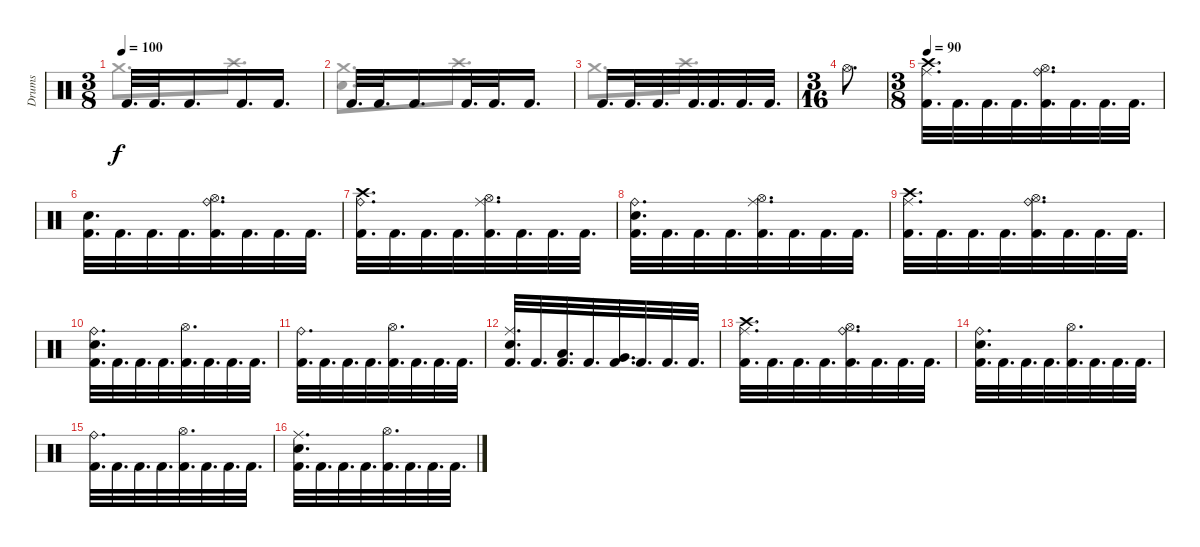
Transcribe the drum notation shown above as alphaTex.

\track ("Drums" "Drums") {instrument percussion}
\staff {score}
\articulation defaults
\voice
\ts (3 8)
\tempo 100
\clef neutral
\ks c "Kick (hit) 2".32{d dy f} "Kick (hit) 2".32{d} "Kick (hit) 2".16{d} "Kick (hit) 2".16{d} "Kick (hit) 2".16{d}
|
"Kick (hit) 2".32{d} "Kick (hit) 2".32{d} "Kick (hit) 2".16{d} "Kick (hit) 2".32{d} "Kick (hit) 2".32{d} "Kick (hit) 2".16{d} |
"Kick (hit) 2".16{d} "Kick (hit) 2".32{d} "Kick (hit) 2".32{d} "Kick (hit) 2".32{d} "Kick (hit) 2".32{d} "Kick (hit) 2".32{d} "Kick (hit) 2".32{d} |
\ts (3 16)
"Hi-Hat (open)".8{d} |
\ts (3 8)
\tempo 90
("Crash high (hit)" "Ride (middle)" "Kick (hit) 2").32{d} "Kick (hit) 2".32{d} "Kick (hit) 2".32{d} "Kick (hit) 2".32{d} ("Ride (bell)" "Hi-Hat (open)" "Kick (hit) 2").32{d} "Kick (hit) 2".32{d} "Kick (hit) 2".32{d} "Kick (hit) 2".32{d} |
("Electric Snare (hit)" "Kick (hit) 2").32{d} "Kick (hit) 2".32{d} "Kick (hit) 2".32{d} "Kick (hit) 2".32{d} ("Ride (bell)" "Hi-Hat (open)" "Kick (hit) 2").32{d} "Kick (hit) 2".32{d} "Kick (hit) 2".32{d} "Kick (hit) 2".32{d} |
("Crash high (hit)" "Ride (bell)" "Kick (hit) 2").32{d} "Kick (hit) 2".32{d} "Kick (hit) 2".32{d} "Kick (hit) 2".32{d} ("Ride (middle)" "Hi-Hat (open)" "Kick (hit) 2").32{d} "Kick (hit) 2".32{d} "Kick (hit) 2".32{d} "Kick (hit) 2".32{d} |
("Ride (bell)" "Electric Snare (hit)" "Kick (hit) 2").32{d} "Kick (hit) 2".32{d} "Kick (hit) 2".32{d} "Kick (hit) 2".32{d} ("Ride (middle)" "Hi-Hat (open)" "Kick (hit) 2").32{d} "Kick (hit) 2".32{d} "Kick (hit) 2".32{d} "Kick (hit) 2".32{d} |
("Crash high (hit)" "Ride (middle)" "Kick (hit) 2").32{d} "Kick (hit) 2".32{d} "Kick (hit) 2".32{d} "Kick (hit) 2".32{d} ("Ride (bell)" "Hi-Hat (open)" "Kick (hit) 2").32{d} "Kick (hit) 2".32{d} "Kick (hit) 2".32{d} "Kick (hit) 2".32{d} |
("Ride (bell)" "Electric Snare (hit)" "Kick (hit) 2").32{d} "Kick (hit) 2".32{d} "Kick (hit) 2".32{d} "Kick (hit) 2".32{d} ("Hi-Hat (open)" "Kick (hit) 2").32{d} "Kick (hit) 2".32{d} "Kick (hit) 2".32{d} "Kick (hit) 2".32{d} |
("Ride (bell)" "Kick (hit) 2").32{d} "Kick (hit) 2".32{d} "Kick (hit) 2".32{d} "Kick (hit) 2".32{d} ("Hi-Hat (open)" "Kick (hit) 2").32{d} "Kick (hit) 2".32{d} "Kick (hit) 2".32{d} "Kick (hit) 2".32{d} |
("Ride (middle)" "Electric Snare (hit)" "Kick (hit) 2").32{d} "Kick (hit) 2".32{d} ("Low Tom (hit)" "Kick (hit) 2").32{d} "Kick (hit) 2".32{d} ("Very Low Tom (hit)" "Kick (hit) 2").32{d} "Kick (hit) 2".32{d} "Kick (hit) 2".32{d} "Kick (hit) 2".32{d} |
("Crash high (hit)" "Ride (middle)" "Kick (hit) 2").32{d} "Kick (hit) 2".32{d} "Kick (hit) 2".32{d} "Kick (hit) 2".32{d} ("Ride (bell)" "Hi-Hat (open)" "Kick (hit) 2").32{d} "Kick (hit) 2".32{d} "Kick (hit) 2".32{d} "Kick (hit) 2".32{d} |
("Ride (bell)" "Electric Snare (hit)" "Kick (hit) 2").32{d} "Kick (hit) 2".32{d} "Kick (hit) 2".32{d} "Kick (hit) 2".32{d} ("Hi-Hat (open)" "Kick (hit) 2").32{d} "Kick (hit) 2".32{d} "Kick (hit) 2".32{d} "Kick (hit) 2".32{d} |
("Ride (bell)" "Kick (hit) 2").32{d} "Kick (hit) 2".32{d} "Kick (hit) 2".32{d} "Kick (hit) 2".32{d} ("Hi-Hat (open)" "Kick (hit) 2").32{d} "Kick (hit) 2".32{d} "Kick (hit) 2".32{d} "Kick (hit) 2".32{d} |
("Ride (middle)" "Electric Snare (hit)" "Kick (hit) 2").32{d} "Kick (hit) 2".32{d} "Kick (hit) 2".32{d} "Kick (hit) 2".32{d} ("Hi-Hat (open)" "Kick (hit) 2").32{d} "Kick (hit) 2".32{d} "Kick (hit) 2".32{d} "Kick (hit) 2".32{d}
\voice
\clef neutral
\ottava regular
\simile none
\ks c "Crash medium (hit)".8{d dy f} "Crash high (hit)".8{d}
|
("Crash medium (hit)" "Electric Snare (hit)").8{d} "Crash high (hit)".8{d} |
"Crash medium (hit)".8{d} "Crash high (hit)".8{d} |
|
|
|
|
|
|
|
|
|
|
|
|
